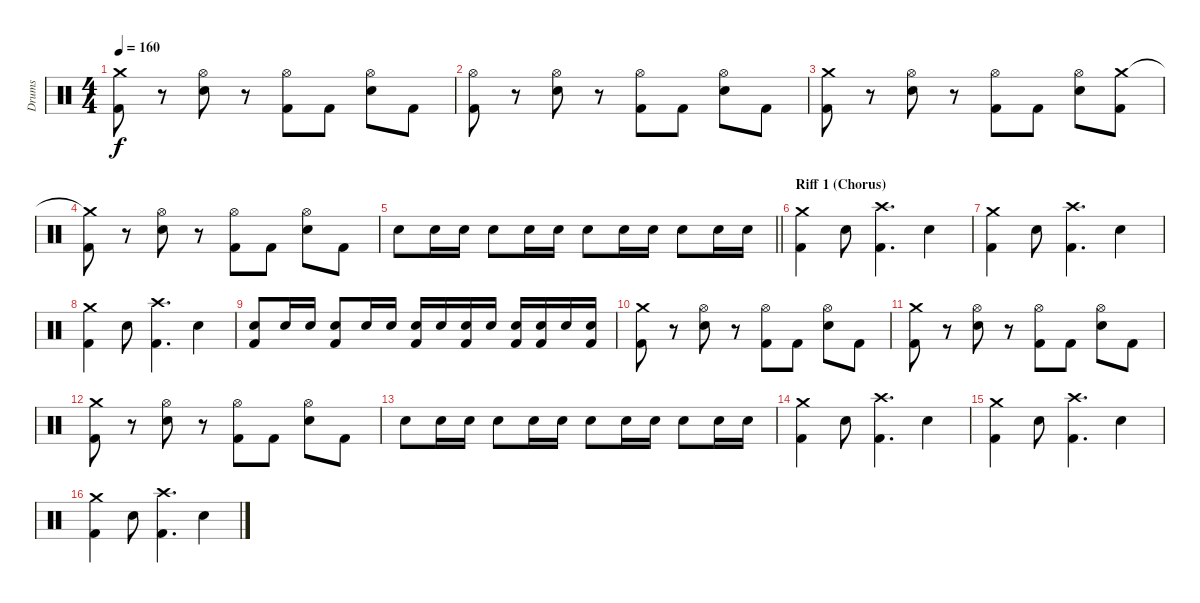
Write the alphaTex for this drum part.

\track ("Drums" "Drums") {instrument percussion}
\staff {score}
\articulation defaults
\ts (4 4)
\tempo 160
\clef neutral
\ks c
("Crash medium (hit)" "Kick (hit) 2").8{dy f} r.8 ("Hi-Hat (open)" "Snare (hit) 2").8 r.8 ("Hi-Hat (open)" "Kick (hit) 2").8 "Kick (hit) 2".8 ("Hi-Hat (open)" "Snare (hit) 2").8 "Kick (hit) 2".8 |
("Hi-Hat (open)" "Kick (hit) 2").8 r.8 ("Hi-Hat (open)" "Snare (hit) 2").8 r.8 ("Hi-Hat (open)" "Kick (hit) 2").8 "Kick (hit) 2".8 ("Hi-Hat (open)" "Snare (hit) 2").8 "Kick (hit) 2".8 |
("Crash medium (hit)" "Kick (hit) 2").8 r.8 ("Hi-Hat (open)" "Snare (hit) 2").8 r.8 ("Hi-Hat (open)" "Kick (hit) 2").8 "Kick (hit) 2".8 ("Hi-Hat (open)" "Snare (hit) 2").8 ("Crash medium (hit)" "Kick (hit) 2").8 |
("Crash medium (hit)"{t} "Kick (hit) 2").8 r.8 ("Hi-Hat (open)" "Snare (hit) 2").8 r.8 ("Hi-Hat (open)" "Kick (hit) 2").8 "Kick (hit) 2".8 ("Hi-Hat (open)" "Snare (hit) 2").8 "Kick (hit) 2".8 |
\barLineRight lightlight "Snare (hit) 2".8 "Snare (hit) 2".16 "Snare (hit) 2".16 "Snare (hit) 2".8 "Snare (hit) 2".16 "Snare (hit) 2".16 "Snare (hit) 2".8 "Snare (hit) 2".16 "Snare (hit) 2".16 "Snare (hit) 2".8 "Snare (hit) 2".16 "Snare (hit) 2".16
|
\section ("" "Riff 1 (Chorus)")
("Crash medium (hit)" "Kick (hit) 2").4 "Snare (hit) 2".8 ("Crash high (hit)" "Kick (hit) 2").4{d} "Snare (hit) 2".4 |
("Crash medium (hit)" "Kick (hit) 2").4 "Snare (hit) 2".8 ("Crash high (hit)" "Kick (hit) 2").4{d} "Snare (hit) 2".4 |
("Crash medium (hit)" "Kick (hit) 2").4 "Snare (hit) 2".8 ("Crash high (hit)" "Kick (hit) 2").4{d} "Snare (hit) 2".4 |
("Snare (hit) 2" "Kick (hit) 2").8 "Snare (hit) 2".16 "Snare (hit) 2".16 ("Snare (hit) 2" "Kick (hit) 2").8 "Snare (hit) 2".16 "Snare (hit) 2".16 ("Snare (hit) 2" "Kick (hit) 2").16 "Snare (hit) 2".16 ("Snare (hit) 2" "Kick (hit) 2").16 "Snare (hit) 2".16 ("Snare (hit) 2" "Kick (hit) 2").16 ("Snare (hit) 2" "Kick (hit) 2").16 "Snare (hit) 2".16 ("Snare (hit) 2" "Kick (hit) 2").16 |
("Crash medium (hit)" "Kick (hit) 2").8 r.8 ("Hi-Hat (open)" "Snare (hit) 2").8 r.8 ("Hi-Hat (open)" "Kick (hit) 2").8 "Kick (hit) 2".8 ("Hi-Hat (open)" "Snare (hit) 2").8 "Kick (hit) 2".8 |
("Crash medium (hit)" "Kick (hit) 2").8 r.8 ("Hi-Hat (open)" "Snare (hit) 2").8 r.8 ("Hi-Hat (open)" "Kick (hit) 2").8 "Kick (hit) 2".8 ("Hi-Hat (open)" "Snare (hit) 2").8 "Kick (hit) 2".8 |
("Crash medium (hit)" "Kick (hit) 2").8 r.8 ("Hi-Hat (open)" "Snare (hit) 2").8 r.8 ("Hi-Hat (open)" "Kick (hit) 2").8 "Kick (hit) 2".8 ("Hi-Hat (open)" "Snare (hit) 2").8 "Kick (hit) 2".8 |
"Snare (hit) 2".8 "Snare (hit) 2".16 "Snare (hit) 2".16 "Snare (hit) 2".8 "Snare (hit) 2".16 "Snare (hit) 2".16 "Snare (hit) 2".8 "Snare (hit) 2".16 "Snare (hit) 2".16 "Snare (hit) 2".8 "Snare (hit) 2".16 "Snare (hit) 2".16 |
("Crash medium (hit)" "Kick (hit) 2").4 "Snare (hit) 2".8 ("Crash high (hit)" "Kick (hit) 2").4{d} "Snare (hit) 2".4 |
("Crash medium (hit)" "Kick (hit) 2").4 "Snare (hit) 2".8 ("Crash high (hit)" "Kick (hit) 2").4{d} "Snare (hit) 2".4 |
("Crash medium (hit)" "Kick (hit) 2").4 "Snare (hit) 2".8 ("Crash high (hit)" "Kick (hit) 2").4{d} "Snare (hit) 2".4
